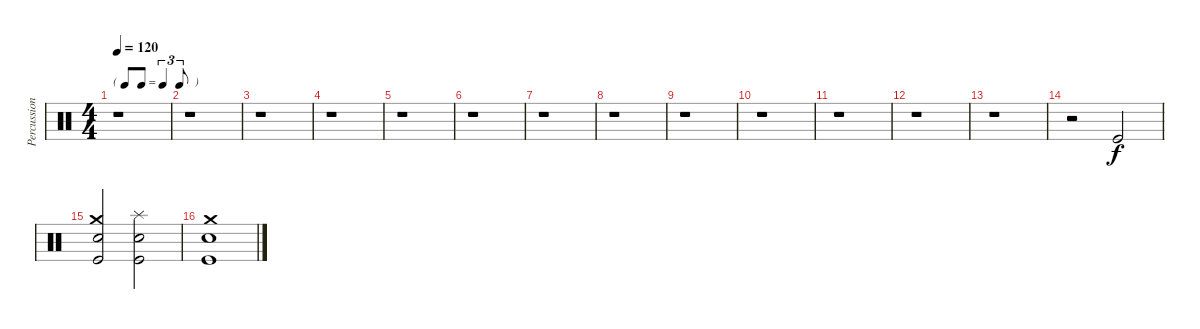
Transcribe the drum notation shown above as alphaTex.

\track ("Percussions" "Percussion") {instrument percussion}
\staff {score}
\articulation defaults
\ts (4 4)
\tf triplet8th
\tempo 120
\clef neutral
\ks c
r.1{dy f} |
r.1 |
r.1 |
r.1 |
r.1 |
r.1 |
r.1 |
r.1 |
r.1 |
r.1 |
r.1 |
r.1 |
r.1 |
r.2 "Kick (hit)".2 |
("Crash medium (hit)" "Electric Snare (hit)" "Kick (hit)").2 ("Splash (hit)" "Electric Snare (hit)" "Kick (hit)").2 |
("Crash medium (hit)" "Electric Snare (hit)" "Kick (hit)").1
